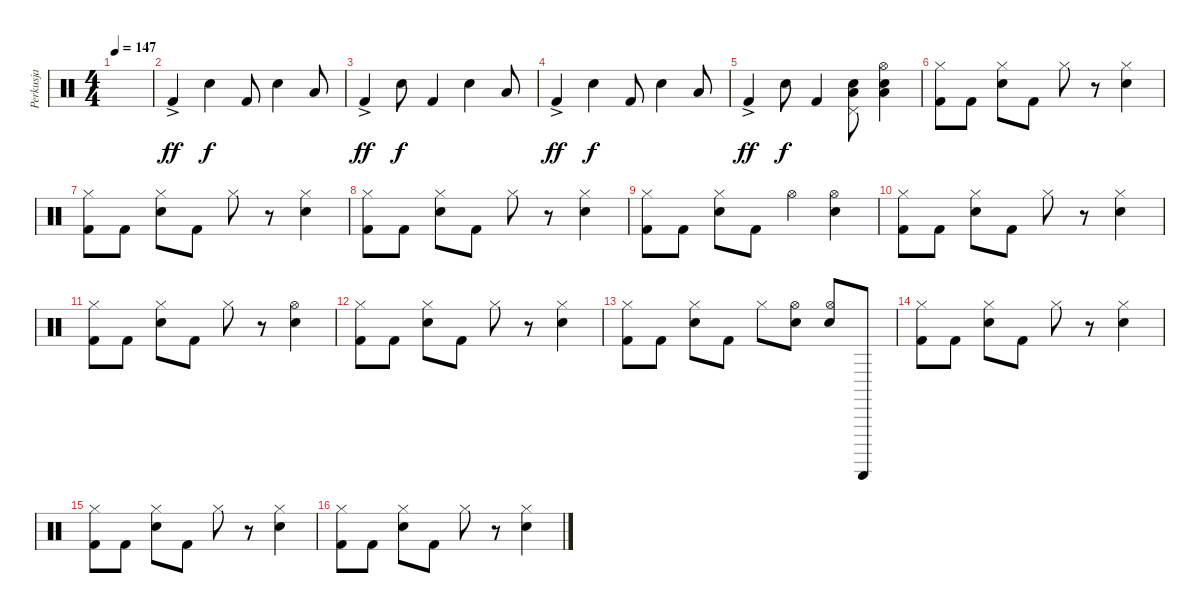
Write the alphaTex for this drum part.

\track ("Perkusja" "Perkusja") {instrument percussion}
\staff {score}
\articulation defaults
\ts (4 4)
\tempo 147
\clef neutral
\ks c
|
"Kick (hit) 2"{ac}.4{dy ff} "Electric Snare (hit)".4{dy f} "Kick (hit) 2".8 "Electric Snare (hit)".4 "Low Tom (hit)".8 |
"Kick (hit) 2"{ac}.4{dy ff} "Electric Snare (hit)".8{dy f} "Kick (hit) 2".4 "Electric Snare (hit)".4 "Low Tom (hit)".8 |
"Kick (hit) 2"{ac}.4{dy ff} "Electric Snare (hit)".4{dy f} "Kick (hit) 2".8 "Electric Snare (hit)".4 "Low Tom (hit)".8 |
"Kick (hit) 2"{ac}.4{dy ff} "Electric Snare (hit)".8{dy f} "Kick (hit) 2".4 ("Pedal Hi-Hat (hit)" "Electric Snare (hit)" "Low Floor Tom (hit)").8 ("Hi-Hat (open)" "Electric Snare (hit)" "Low Floor Tom (hit)").4 |
("Hi-Hat (closed)" "Kick (hit) 2").8 "Kick (hit) 2".8 ("Hi-Hat (closed)" "Electric Snare (hit)").8 "Kick (hit) 2".8 "Hi-Hat (closed)".8 r.8 ("Hi-Hat (closed)" "Electric Snare (hit)").4 |
("Hi-Hat (closed)" "Kick (hit) 2").8 "Kick (hit) 2".8 ("Hi-Hat (closed)" "Electric Snare (hit)").8 "Kick (hit) 2".8 "Hi-Hat (closed)".8 r.8 ("Hi-Hat (closed)" "Electric Snare (hit)").4 |
("Hi-Hat (closed)" "Kick (hit) 2").8 "Kick (hit) 2".8 ("Hi-Hat (closed)" "Electric Snare (hit)").8 "Kick (hit) 2".8 "Hi-Hat (closed)".8 r.8 ("Hi-Hat (closed)" "Electric Snare (hit)").4 |
("Hi-Hat (closed)" "Kick (hit) 2").8 "Kick (hit) 2".8 ("Hi-Hat (closed)" "Electric Snare (hit)").8 "Kick (hit) 2".8 "Hi-Hat (open)".4 ("Hi-Hat (open)" "Electric Snare (hit)").4 |
("Hi-Hat (closed)" "Kick (hit) 2").8 "Kick (hit) 2".8 ("Hi-Hat (closed)" "Electric Snare (hit)").8 "Kick (hit) 2".8 "Hi-Hat (closed)".8 r.8 ("Hi-Hat (closed)" "Electric Snare (hit)").4 |
("Hi-Hat (closed)" "Kick (hit) 2").8 "Kick (hit) 2".8 ("Hi-Hat (closed)" "Electric Snare (hit)").8 "Kick (hit) 2".8 "Hi-Hat (closed)".8 r.8 ("Hi-Hat (open)" "Electric Snare (hit)").4 |
("Hi-Hat (closed)" "Kick (hit) 2").8 "Kick (hit) 2".8 ("Hi-Hat (closed)" "Electric Snare (hit)").8 "Kick (hit) 2".8 "Hi-Hat (closed)".8 r.8 ("Hi-Hat (closed)" "Electric Snare (hit)").4 |
("Hi-Hat (closed)" "Kick (hit) 2").8 "Kick (hit) 2".8 ("Hi-Hat (closed)" "Electric Snare (hit)").8 "Kick (hit) 2".8 "Hi-Hat (closed)".8 ("Hi-Hat (open)" "Electric Snare (hit)").8 ("Hi-Hat (open)" "Electric Snare (hit)").8 "Guiro (scrap-return)".8 |
("Hi-Hat (closed)" "Kick (hit) 2").8 "Kick (hit) 2".8 ("Hi-Hat (closed)" "Electric Snare (hit)").8 "Kick (hit) 2".8 "Hi-Hat (closed)".8 r.8 ("Hi-Hat (closed)" "Electric Snare (hit)").4 |
("Hi-Hat (closed)" "Kick (hit) 2").8 "Kick (hit) 2".8 ("Hi-Hat (closed)" "Electric Snare (hit)").8 "Kick (hit) 2".8 "Hi-Hat (closed)".8 r.8 ("Hi-Hat (closed)" "Electric Snare (hit)").4 |
("Hi-Hat (closed)" "Kick (hit) 2").8 "Kick (hit) 2".8 ("Hi-Hat (closed)" "Electric Snare (hit)").8 "Kick (hit) 2".8 "Hi-Hat (closed)".8 r.8 ("Hi-Hat (closed)" "Electric Snare (hit)").4
